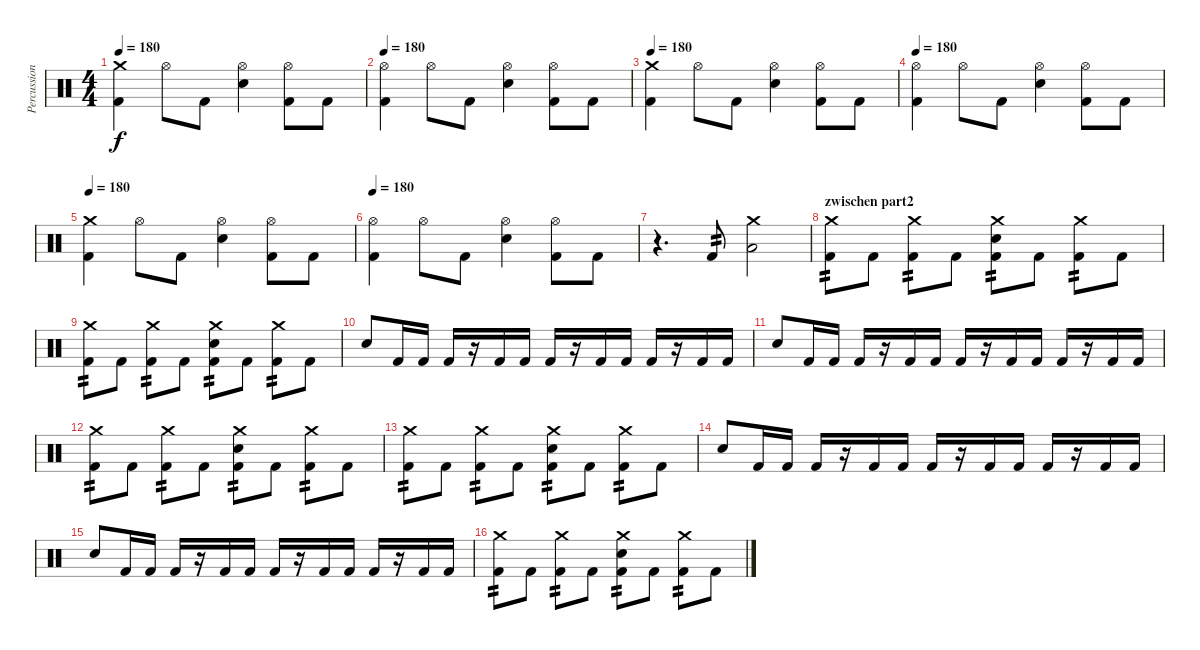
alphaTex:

\track ("Percussion" "Percussion") {instrument percussion}
\staff {score}
\articulation defaults
\ts (4 4)
\tempo 180
\clef neutral
\ks c
("Crash medium (hit)" "Kick (hit) 2").4{dy f} "Hi-Hat (open)".8 "Kick (hit) 2".8 ("Hi-Hat (open)" "Electric Snare (hit)").4 ("Hi-Hat (open)" "Kick (hit) 2").8 "Kick (hit) 2".8 |
\tempo 180
("Hi-Hat (open)" "Kick (hit) 2").4 "Hi-Hat (open)".8 "Kick (hit) 2".8 ("Hi-Hat (open)" "Electric Snare (hit)").4 ("Hi-Hat (open)" "Kick (hit) 2").8 "Kick (hit) 2".8 |
\tempo 180
("Crash medium (hit)" "Kick (hit) 2").4 "Hi-Hat (open)".8 "Kick (hit) 2".8 ("Hi-Hat (open)" "Electric Snare (hit)").4 ("Hi-Hat (open)" "Kick (hit) 2").8 "Kick (hit) 2".8 |
\tempo 180
("Hi-Hat (open)" "Kick (hit) 2").4 "Hi-Hat (open)".8 "Kick (hit) 2".8 ("Hi-Hat (open)" "Electric Snare (hit)").4 ("Hi-Hat (open)" "Kick (hit) 2").8 "Kick (hit) 2".8 |
\tempo 180
("Crash medium (hit)" "Kick (hit) 2").4 "Hi-Hat (open)".8 "Kick (hit) 2".8 ("Hi-Hat (open)" "Electric Snare (hit)").4 ("Hi-Hat (open)" "Kick (hit) 2").8 "Kick (hit) 2".8 |
\tempo 180
("Hi-Hat (open)" "Kick (hit) 2").4 "Hi-Hat (open)".8 "Kick (hit) 2".8 ("Hi-Hat (open)" "Electric Snare (hit)").4 ("Hi-Hat (open)" "Kick (hit) 2").8 "Kick (hit) 2".8 |
r.4{d} "Kick (hit) 2".8{tp 2} ("Crash medium (hit)" "Low Floor Tom (hit)").2 |
\section ("" "zwischen part2")
("Crash medium (hit)" "Kick (hit) 2").8{tp 2} "Kick (hit) 2".8 ("Crash medium (hit)" "Kick (hit) 2").8{tp 2} "Kick (hit) 2".8 ("Crash medium (hit)" "Electric Snare (hit)" "Kick (hit) 2").8{tp 2} "Kick (hit) 2".8 ("Crash medium (hit)" "Kick (hit) 2").8{tp 2} "Kick (hit) 2".8 |
("Crash medium (hit)" "Kick (hit) 2").8{tp 2} "Kick (hit) 2".8 ("Crash medium (hit)" "Kick (hit) 2").8{tp 2} "Kick (hit) 2".8 ("Crash medium (hit)" "Electric Snare (hit)" "Kick (hit) 2").8{tp 2} "Kick (hit) 2".8 ("Crash medium (hit)" "Kick (hit) 2").8{tp 2} "Kick (hit) 2".8 |
"Electric Snare (hit)".8 "Kick (hit) 2".16 "Kick (hit) 2".16 "Kick (hit) 2".16 r.16 "Kick (hit) 2".16 "Kick (hit) 2".16 "Kick (hit) 2".16 r.16 "Kick (hit) 2".16 "Kick (hit) 2".16 "Kick (hit) 2".16 r.16 "Kick (hit) 2".16 "Kick (hit) 2".16 |
"Electric Snare (hit)".8 "Kick (hit) 2".16 "Kick (hit) 2".16 "Kick (hit) 2".16 r.16 "Kick (hit) 2".16 "Kick (hit) 2".16 "Kick (hit) 2".16 r.16 "Kick (hit) 2".16 "Kick (hit) 2".16 "Kick (hit) 2".16 r.16 "Kick (hit) 2".16 "Kick (hit) 2".16 |
("Crash medium (hit)" "Kick (hit) 2").8{tp 2} "Kick (hit) 2".8 ("Crash medium (hit)" "Kick (hit) 2").8{tp 2} "Kick (hit) 2".8 ("Crash medium (hit)" "Electric Snare (hit)" "Kick (hit) 2").8{tp 2} "Kick (hit) 2".8 ("Crash medium (hit)" "Kick (hit) 2").8{tp 2} "Kick (hit) 2".8 |
("Crash medium (hit)" "Kick (hit) 2").8{tp 2} "Kick (hit) 2".8 ("Crash medium (hit)" "Kick (hit) 2").8{tp 2} "Kick (hit) 2".8 ("Crash medium (hit)" "Electric Snare (hit)" "Kick (hit) 2").8{tp 2} "Kick (hit) 2".8 ("Crash medium (hit)" "Kick (hit) 2").8{tp 2} "Kick (hit) 2".8 |
"Electric Snare (hit)".8 "Kick (hit) 2".16 "Kick (hit) 2".16 "Kick (hit) 2".16 r.16 "Kick (hit) 2".16 "Kick (hit) 2".16 "Kick (hit) 2".16 r.16 "Kick (hit) 2".16 "Kick (hit) 2".16 "Kick (hit) 2".16 r.16 "Kick (hit) 2".16 "Kick (hit) 2".16 |
"Electric Snare (hit)".8 "Kick (hit) 2".16 "Kick (hit) 2".16 "Kick (hit) 2".16 r.16 "Kick (hit) 2".16 "Kick (hit) 2".16 "Kick (hit) 2".16 r.16 "Kick (hit) 2".16 "Kick (hit) 2".16 "Kick (hit) 2".16 r.16 "Kick (hit) 2".16 "Kick (hit) 2".16 |
("Crash medium (hit)" "Kick (hit) 2").8{tp 2} "Kick (hit) 2".8 ("Crash medium (hit)" "Kick (hit) 2").8{tp 2} "Kick (hit) 2".8 ("Crash medium (hit)" "Electric Snare (hit)" "Kick (hit) 2").8{tp 2} "Kick (hit) 2".8 ("Crash medium (hit)" "Kick (hit) 2").8{tp 2} "Kick (hit) 2".8
